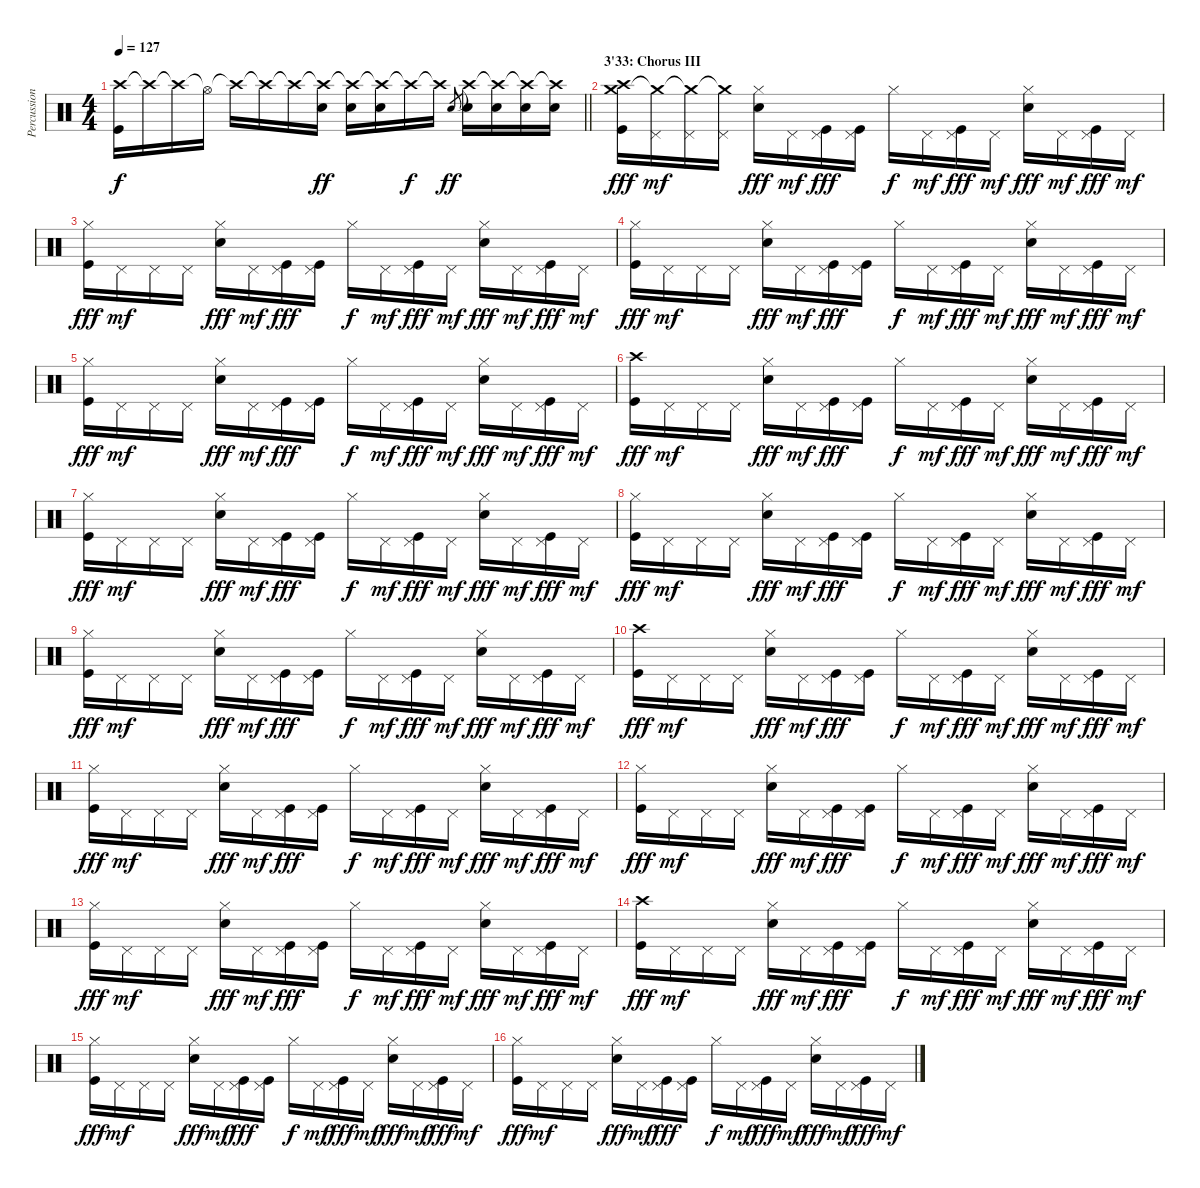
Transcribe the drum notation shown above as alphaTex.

\track ("Percussions" "Percussion") {instrument percussion}
\staff {score}
\articulation defaults
\ts (4 4)
\tempo 127
\clef neutral
\barLineRight lightlight
\ks c
("Crash high (hit)" "Kick (hit)").16{dy f} "Crash high (hit)"{t}.16 "Crash high (hit)"{t}.16 "Hi-Hat (open)"{t}.16 "Crash high (hit)"{t}.16 "Crash high (hit)"{t}.16 "Crash high (hit)"{t}.16 ("Crash high (hit)"{t} "Electric Snare (hit)").16{dy ff} ("Crash high (hit)"{t} "Electric Snare (hit)").16 ("Crash high (hit)"{t} "Electric Snare (hit)").16 "Crash high (hit)"{t}.16{dy f} "Crash high (hit)"{t}.16 "Electric Snare (hit)".8{gr dy ff} ("Crash high (hit)"{t} "Electric Snare (hit)").16 ("Crash high (hit)"{t} "Electric Snare (hit)").16 ("Crash high (hit)"{t} "Electric Snare (hit)").16 ("Crash high (hit)"{t} "Electric Snare (hit)").16 |
\section ("" "3'33: Chorus III")
("Crash high (hit)" "Crash medium (hit)" "Kick (hit)").16{dy fff} ("Pedal Hi-Hat (hit)" "Crash medium (hit)"{t}).16{dy mf} ("Pedal Hi-Hat (hit)" "Crash medium (hit)"{t}).16 ("Pedal Hi-Hat (hit)" "Crash medium (hit)"{t}).16 ("Hi-Hat (closed)" "Electric Snare (hit)").16{dy fff} "Pedal Hi-Hat (hit)".16{dy mf} ("Pedal Hi-Hat (hit)" "Kick (hit)").16{dy fff} ("Pedal Hi-Hat (hit)" "Kick (hit)").16 "Hi-Hat (closed)".16{dy f} "Pedal Hi-Hat (hit)".16{dy mf} ("Pedal Hi-Hat (hit)" "Kick (hit)").16{dy fff} "Pedal Hi-Hat (hit)".16{dy mf} ("Hi-Hat (closed)" "Electric Snare (hit)").16{dy fff} "Pedal Hi-Hat (hit)".16{dy mf} ("Pedal Hi-Hat (hit)" "Kick (hit)").16{dy fff} "Pedal Hi-Hat (hit)".16{dy mf} |
("Hi-Hat (closed)" "Kick (hit)").16{dy fff} "Pedal Hi-Hat (hit)".16{dy mf} "Pedal Hi-Hat (hit)".16 "Pedal Hi-Hat (hit)".16 ("Hi-Hat (closed)" "Electric Snare (hit)").16{dy fff} "Pedal Hi-Hat (hit)".16{dy mf} ("Pedal Hi-Hat (hit)" "Kick (hit)").16{dy fff} ("Pedal Hi-Hat (hit)" "Kick (hit)").16 "Hi-Hat (closed)".16{dy f} "Pedal Hi-Hat (hit)".16{dy mf} ("Pedal Hi-Hat (hit)" "Kick (hit)").16{dy fff} "Pedal Hi-Hat (hit)".16{dy mf} ("Hi-Hat (closed)" "Electric Snare (hit)").16{dy fff} "Pedal Hi-Hat (hit)".16{dy mf} ("Pedal Hi-Hat (hit)" "Kick (hit)").16{dy fff} "Pedal Hi-Hat (hit)".16{dy mf} |
("Hi-Hat (closed)" "Kick (hit)").16{dy fff} "Pedal Hi-Hat (hit)".16{dy mf} "Pedal Hi-Hat (hit)".16 "Pedal Hi-Hat (hit)".16 ("Hi-Hat (closed)" "Electric Snare (hit)").16{dy fff} "Pedal Hi-Hat (hit)".16{dy mf} ("Pedal Hi-Hat (hit)" "Kick (hit)").16{dy fff} ("Pedal Hi-Hat (hit)" "Kick (hit)").16 "Hi-Hat (closed)".16{dy f} "Pedal Hi-Hat (hit)".16{dy mf} ("Pedal Hi-Hat (hit)" "Kick (hit)").16{dy fff} "Pedal Hi-Hat (hit)".16{dy mf} ("Hi-Hat (closed)" "Electric Snare (hit)").16{dy fff} "Pedal Hi-Hat (hit)".16{dy mf} ("Pedal Hi-Hat (hit)" "Kick (hit)").16{dy fff} "Pedal Hi-Hat (hit)".16{dy mf} |
("Hi-Hat (closed)" "Kick (hit)").16{dy fff} "Pedal Hi-Hat (hit)".16{dy mf} "Pedal Hi-Hat (hit)".16 "Pedal Hi-Hat (hit)".16 ("Hi-Hat (closed)" "Electric Snare (hit)").16{dy fff} "Pedal Hi-Hat (hit)".16{dy mf} ("Pedal Hi-Hat (hit)" "Kick (hit)").16{dy fff} ("Pedal Hi-Hat (hit)" "Kick (hit)").16 "Hi-Hat (closed)".16{dy f} "Pedal Hi-Hat (hit)".16{dy mf} ("Pedal Hi-Hat (hit)" "Kick (hit)").16{dy fff} "Pedal Hi-Hat (hit)".16{dy mf} ("Hi-Hat (closed)" "Electric Snare (hit)").16{dy fff} "Pedal Hi-Hat (hit)".16{dy mf} ("Pedal Hi-Hat (hit)" "Kick (hit)").16{dy fff} "Pedal Hi-Hat (hit)".16{dy mf} |
("Crash high (hit)" "Kick (hit)").16{dy fff} "Pedal Hi-Hat (hit)".16{dy mf} "Pedal Hi-Hat (hit)".16 "Pedal Hi-Hat (hit)".16 ("Hi-Hat (closed)" "Electric Snare (hit)").16{dy fff} "Pedal Hi-Hat (hit)".16{dy mf} ("Pedal Hi-Hat (hit)" "Kick (hit)").16{dy fff} ("Pedal Hi-Hat (hit)" "Kick (hit)").16 "Hi-Hat (closed)".16{dy f} "Pedal Hi-Hat (hit)".16{dy mf} ("Pedal Hi-Hat (hit)" "Kick (hit)").16{dy fff} "Pedal Hi-Hat (hit)".16{dy mf} ("Hi-Hat (closed)" "Electric Snare (hit)").16{dy fff} "Pedal Hi-Hat (hit)".16{dy mf} ("Pedal Hi-Hat (hit)" "Kick (hit)").16{dy fff} "Pedal Hi-Hat (hit)".16{dy mf} |
("Hi-Hat (closed)" "Kick (hit)").16{dy fff} "Pedal Hi-Hat (hit)".16{dy mf} "Pedal Hi-Hat (hit)".16 "Pedal Hi-Hat (hit)".16 ("Hi-Hat (closed)" "Electric Snare (hit)").16{dy fff} "Pedal Hi-Hat (hit)".16{dy mf} ("Pedal Hi-Hat (hit)" "Kick (hit)").16{dy fff} ("Pedal Hi-Hat (hit)" "Kick (hit)").16 "Hi-Hat (closed)".16{dy f} "Pedal Hi-Hat (hit)".16{dy mf} ("Pedal Hi-Hat (hit)" "Kick (hit)").16{dy fff} "Pedal Hi-Hat (hit)".16{dy mf} ("Hi-Hat (closed)" "Electric Snare (hit)").16{dy fff} "Pedal Hi-Hat (hit)".16{dy mf} ("Pedal Hi-Hat (hit)" "Kick (hit)").16{dy fff} "Pedal Hi-Hat (hit)".16{dy mf} |
("Hi-Hat (closed)" "Kick (hit)").16{dy fff} "Pedal Hi-Hat (hit)".16{dy mf} "Pedal Hi-Hat (hit)".16 "Pedal Hi-Hat (hit)".16 ("Hi-Hat (closed)" "Electric Snare (hit)").16{dy fff} "Pedal Hi-Hat (hit)".16{dy mf} ("Pedal Hi-Hat (hit)" "Kick (hit)").16{dy fff} ("Pedal Hi-Hat (hit)" "Kick (hit)").16 "Hi-Hat (closed)".16{dy f} "Pedal Hi-Hat (hit)".16{dy mf} ("Pedal Hi-Hat (hit)" "Kick (hit)").16{dy fff} "Pedal Hi-Hat (hit)".16{dy mf} ("Hi-Hat (closed)" "Electric Snare (hit)").16{dy fff} "Pedal Hi-Hat (hit)".16{dy mf} ("Pedal Hi-Hat (hit)" "Kick (hit)").16{dy fff} "Pedal Hi-Hat (hit)".16{dy mf} |
("Hi-Hat (closed)" "Kick (hit)").16{dy fff} "Pedal Hi-Hat (hit)".16{dy mf} "Pedal Hi-Hat (hit)".16 "Pedal Hi-Hat (hit)".16 ("Hi-Hat (closed)" "Electric Snare (hit)").16{dy fff} "Pedal Hi-Hat (hit)".16{dy mf} ("Pedal Hi-Hat (hit)" "Kick (hit)").16{dy fff} ("Pedal Hi-Hat (hit)" "Kick (hit)").16 "Hi-Hat (closed)".16{dy f} "Pedal Hi-Hat (hit)".16{dy mf} ("Pedal Hi-Hat (hit)" "Kick (hit)").16{dy fff} "Pedal Hi-Hat (hit)".16{dy mf} ("Hi-Hat (closed)" "Electric Snare (hit)").16{dy fff} "Pedal Hi-Hat (hit)".16{dy mf} ("Pedal Hi-Hat (hit)" "Kick (hit)").16{dy fff} "Pedal Hi-Hat (hit)".16{dy mf} |
("Crash high (hit)" "Kick (hit)").16{dy fff} "Pedal Hi-Hat (hit)".16{dy mf} "Pedal Hi-Hat (hit)".16 "Pedal Hi-Hat (hit)".16 ("Hi-Hat (closed)" "Electric Snare (hit)").16{dy fff} "Pedal Hi-Hat (hit)".16{dy mf} ("Pedal Hi-Hat (hit)" "Kick (hit)").16{dy fff} ("Pedal Hi-Hat (hit)" "Kick (hit)").16 "Hi-Hat (closed)".16{dy f} "Pedal Hi-Hat (hit)".16{dy mf} ("Pedal Hi-Hat (hit)" "Kick (hit)").16{dy fff} "Pedal Hi-Hat (hit)".16{dy mf} ("Hi-Hat (closed)" "Electric Snare (hit)").16{dy fff} "Pedal Hi-Hat (hit)".16{dy mf} ("Pedal Hi-Hat (hit)" "Kick (hit)").16{dy fff} "Pedal Hi-Hat (hit)".16{dy mf} |
("Hi-Hat (closed)" "Kick (hit)").16{dy fff} "Pedal Hi-Hat (hit)".16{dy mf} "Pedal Hi-Hat (hit)".16 "Pedal Hi-Hat (hit)".16 ("Hi-Hat (closed)" "Electric Snare (hit)").16{dy fff} "Pedal Hi-Hat (hit)".16{dy mf} ("Pedal Hi-Hat (hit)" "Kick (hit)").16{dy fff} ("Pedal Hi-Hat (hit)" "Kick (hit)").16 "Hi-Hat (closed)".16{dy f} "Pedal Hi-Hat (hit)".16{dy mf} ("Pedal Hi-Hat (hit)" "Kick (hit)").16{dy fff} "Pedal Hi-Hat (hit)".16{dy mf} ("Hi-Hat (closed)" "Electric Snare (hit)").16{dy fff} "Pedal Hi-Hat (hit)".16{dy mf} ("Pedal Hi-Hat (hit)" "Kick (hit)").16{dy fff} "Pedal Hi-Hat (hit)".16{dy mf} |
("Hi-Hat (closed)" "Kick (hit)").16{dy fff} "Pedal Hi-Hat (hit)".16{dy mf} "Pedal Hi-Hat (hit)".16 "Pedal Hi-Hat (hit)".16 ("Hi-Hat (closed)" "Electric Snare (hit)").16{dy fff} "Pedal Hi-Hat (hit)".16{dy mf} ("Pedal Hi-Hat (hit)" "Kick (hit)").16{dy fff} ("Pedal Hi-Hat (hit)" "Kick (hit)").16 "Hi-Hat (closed)".16{dy f} "Pedal Hi-Hat (hit)".16{dy mf} ("Pedal Hi-Hat (hit)" "Kick (hit)").16{dy fff} "Pedal Hi-Hat (hit)".16{dy mf} ("Hi-Hat (closed)" "Electric Snare (hit)").16{dy fff} "Pedal Hi-Hat (hit)".16{dy mf} ("Pedal Hi-Hat (hit)" "Kick (hit)").16{dy fff} "Pedal Hi-Hat (hit)".16{dy mf} |
("Hi-Hat (closed)" "Kick (hit)").16{dy fff} "Pedal Hi-Hat (hit)".16{dy mf} "Pedal Hi-Hat (hit)".16 "Pedal Hi-Hat (hit)".16 ("Hi-Hat (closed)" "Electric Snare (hit)").16{dy fff} "Pedal Hi-Hat (hit)".16{dy mf} ("Pedal Hi-Hat (hit)" "Kick (hit)").16{dy fff} ("Pedal Hi-Hat (hit)" "Kick (hit)").16 "Hi-Hat (closed)".16{dy f} "Pedal Hi-Hat (hit)".16{dy mf} ("Pedal Hi-Hat (hit)" "Kick (hit)").16{dy fff} "Pedal Hi-Hat (hit)".16{dy mf} ("Hi-Hat (closed)" "Electric Snare (hit)").16{dy fff} "Pedal Hi-Hat (hit)".16{dy mf} ("Pedal Hi-Hat (hit)" "Kick (hit)").16{dy fff} "Pedal Hi-Hat (hit)".16{dy mf} |
("Crash high (hit)" "Kick (hit)").16{dy fff} "Pedal Hi-Hat (hit)".16{dy mf} "Pedal Hi-Hat (hit)".16 "Pedal Hi-Hat (hit)".16 ("Hi-Hat (closed)" "Electric Snare (hit)").16{dy fff} "Pedal Hi-Hat (hit)".16{dy mf} ("Pedal Hi-Hat (hit)" "Kick (hit)").16{dy fff} ("Pedal Hi-Hat (hit)" "Kick (hit)").16 "Hi-Hat (closed)".16{dy f} "Pedal Hi-Hat (hit)".16{dy mf} ("Pedal Hi-Hat (hit)" "Kick (hit)").16{dy fff} "Pedal Hi-Hat (hit)".16{dy mf} ("Hi-Hat (closed)" "Electric Snare (hit)").16{dy fff} "Pedal Hi-Hat (hit)".16{dy mf} ("Pedal Hi-Hat (hit)" "Kick (hit)").16{dy fff} "Pedal Hi-Hat (hit)".16{dy mf} |
("Hi-Hat (closed)" "Kick (hit)").16{dy fff} "Pedal Hi-Hat (hit)".16{dy mf} "Pedal Hi-Hat (hit)".16 "Pedal Hi-Hat (hit)".16 ("Hi-Hat (closed)" "Electric Snare (hit)").16{dy fff} "Pedal Hi-Hat (hit)".16{dy mf} ("Pedal Hi-Hat (hit)" "Kick (hit)").16{dy fff} ("Pedal Hi-Hat (hit)" "Kick (hit)").16 "Hi-Hat (closed)".16{dy f} "Pedal Hi-Hat (hit)".16{dy mf} ("Pedal Hi-Hat (hit)" "Kick (hit)").16{dy fff} "Pedal Hi-Hat (hit)".16{dy mf} ("Hi-Hat (closed)" "Electric Snare (hit)").16{dy fff} "Pedal Hi-Hat (hit)".16{dy mf} ("Pedal Hi-Hat (hit)" "Kick (hit)").16{dy fff} "Pedal Hi-Hat (hit)".16{dy mf} |
("Hi-Hat (closed)" "Kick (hit)").16{dy fff} "Pedal Hi-Hat (hit)".16{dy mf} "Pedal Hi-Hat (hit)".16 "Pedal Hi-Hat (hit)".16 ("Hi-Hat (closed)" "Electric Snare (hit)").16{dy fff} "Pedal Hi-Hat (hit)".16{dy mf} ("Pedal Hi-Hat (hit)" "Kick (hit)").16{dy fff} ("Pedal Hi-Hat (hit)" "Kick (hit)").16 "Hi-Hat (closed)".16{dy f} "Pedal Hi-Hat (hit)".16{dy mf} ("Pedal Hi-Hat (hit)" "Kick (hit)").16{dy fff} "Pedal Hi-Hat (hit)".16{dy mf} ("Hi-Hat (closed)" "Electric Snare (hit)").16{dy fff} "Pedal Hi-Hat (hit)".16{dy mf} ("Pedal Hi-Hat (hit)" "Kick (hit)").16{dy fff} "Pedal Hi-Hat (hit)".16{dy mf}
